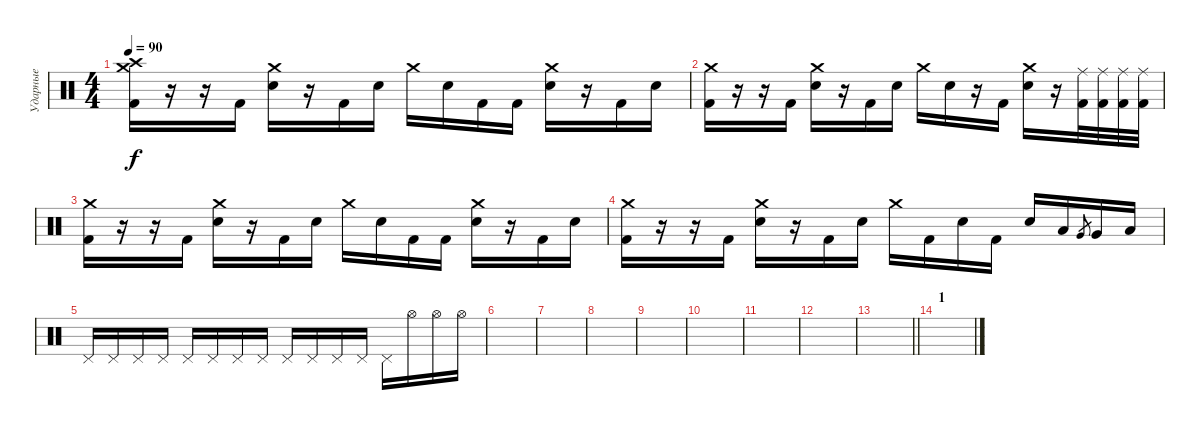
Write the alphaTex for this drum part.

\track ("Ударные" "Ударные") {instrument percussion}
\staff {score}
\articulation defaults
\ts (4 4)
\tempo 90
\clef neutral
\ks c
("Crash medium (hit)" "Crash high (hit)" "Kick (hit) 2").16{dy f} r.16 r.16 "Kick (hit) 2".16 ("Crash medium (hit)" "Snare (hit) 2").16 r.16 "Kick (hit) 2".16 "Snare (hit) 2".16 "Crash medium (hit)".16 "Snare (hit) 2".16 "Kick (hit) 2".16 "Kick (hit) 2".16 ("Crash medium (hit)" "Snare (hit) 2").16 r.16 "Kick (hit) 2".16 "Snare (hit) 2".16 |
("Crash medium (hit)" "Kick (hit) 2").16 r.16 r.16 "Kick (hit) 2".16 ("Crash medium (hit)" "Snare (hit) 2").16 r.16 "Kick (hit) 2".16 "Snare (hit) 2".16 "Crash medium (hit)".16 "Snare (hit) 2".16 r.16 "Kick (hit) 2".16 ("Crash medium (hit)" "Snare (hit) 2").16 r.16 ("Ride (middle)" "Kick (hit) 2").32 ("Ride (middle)" "Kick (hit) 2").32 ("Ride (middle)" "Kick (hit) 2").32 ("Ride (middle)" "Kick (hit) 2").32 |
("Crash medium (hit)" "Kick (hit) 2").16 r.16 r.16 "Kick (hit) 2".16 ("Crash medium (hit)" "Snare (hit) 2").16 r.16 "Kick (hit) 2".16 "Snare (hit) 2".16 "Crash medium (hit)".16 "Snare (hit) 2".16 "Kick (hit) 2".16 "Kick (hit) 2".16 ("Crash medium (hit)" "Snare (hit) 2").16 r.16 "Kick (hit) 2".16 "Snare (hit) 2".16 |
("Crash medium (hit)" "Kick (hit) 2").16 r.16 r.16 "Kick (hit) 2".16 ("Crash medium (hit)" "Snare (hit) 2").16 r.16 "Kick (hit) 2".16 "Snare (hit) 2".16 "Crash medium (hit)".16 "Kick (hit) 2".16 "Snare (hit) 2".16 "Kick (hit) 2".16 "Snare (hit) 2".16 "Low Floor Tom (hit)".16 "Very Low Tom (hit)".8{gr} "Very Low Tom (hit)".16 "Low Tom (hit)".16 |
"Pedal Hi-Hat (hit)".16 "Pedal Hi-Hat (hit)".16 "Pedal Hi-Hat (hit)".16 "Pedal Hi-Hat (hit)".16 "Pedal Hi-Hat (hit)".16 "Pedal Hi-Hat (hit)".16 "Pedal Hi-Hat (hit)".16 "Pedal Hi-Hat (hit)".16 "Pedal Hi-Hat (hit)".16 "Pedal Hi-Hat (hit)".16 "Pedal Hi-Hat (hit)".16 "Pedal Hi-Hat (hit)".16 "Pedal Hi-Hat (hit)".16 "Hi-Hat (open)".16 "Hi-Hat (open)".16 "Hi-Hat (open)".16 |
|
|
|
|
|
|
|
\barLineRight lightlight
|
\section ("" "1")
